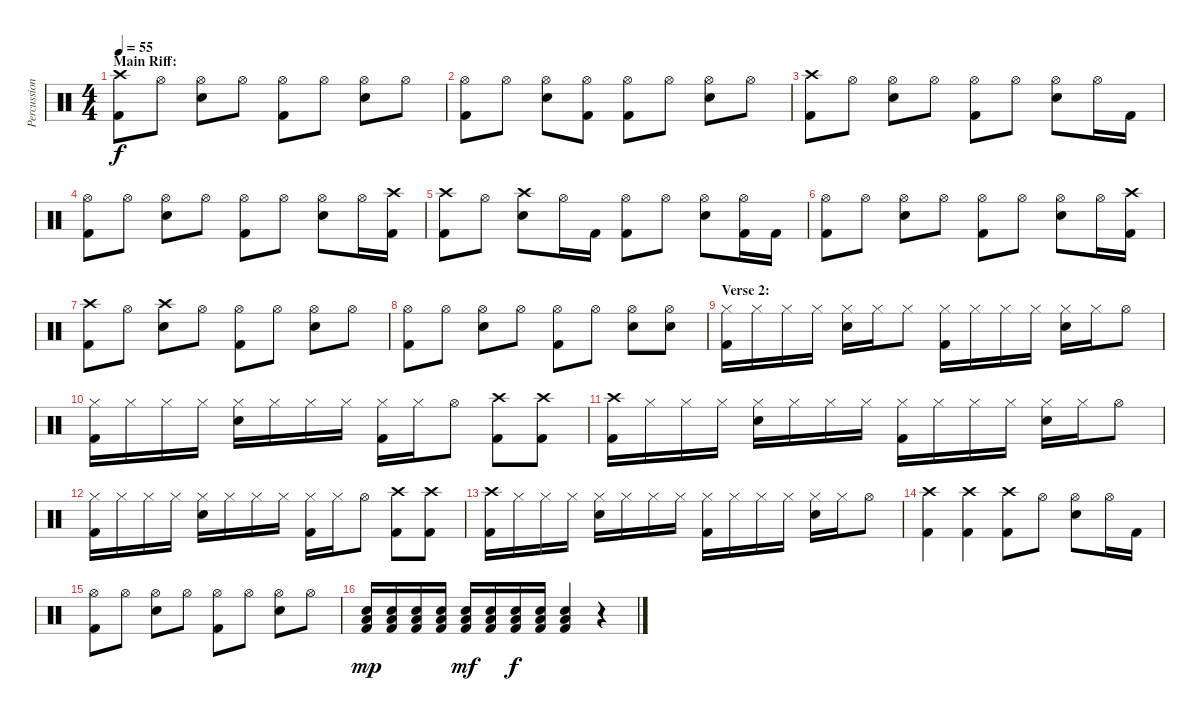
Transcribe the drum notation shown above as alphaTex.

\track ("Percussion" "Percussion") {instrument percussion}
\staff {score}
\articulation defaults
\ts (4 4)
\section ("" "Main Riff:")
\tempo 55
\clef neutral
\ks c
("Crash high (hit)" "Kick (hit) 2").8{dy f} "Hi-Hat (open)".8 ("Hi-Hat (open)" "Snare (hit) 2").8 "Hi-Hat (open)".8 ("Hi-Hat (open)" "Kick (hit) 2").8 "Hi-Hat (open)".8 ("Hi-Hat (open)" "Snare (hit) 2").8 "Hi-Hat (open)".8 |
("Hi-Hat (open)" "Kick (hit) 2").8 "Hi-Hat (open)".8 ("Hi-Hat (open)" "Snare (hit) 2").8 ("Hi-Hat (open)" "Kick (hit) 2").8 ("Hi-Hat (open)" "Kick (hit) 2").8 "Hi-Hat (open)".8 ("Hi-Hat (open)" "Snare (hit) 2").8 "Hi-Hat (open)".8 |
("Crash high (hit)" "Kick (hit) 2").8 "Hi-Hat (open)".8 ("Hi-Hat (open)" "Snare (hit) 2").8 "Hi-Hat (open)".8 ("Hi-Hat (open)" "Kick (hit) 2").8 "Hi-Hat (open)".8 ("Hi-Hat (open)" "Snare (hit) 2").8 "Hi-Hat (open)".16 "Kick (hit) 2".16 |
("Hi-Hat (open)" "Kick (hit) 2").8 "Hi-Hat (open)".8 ("Hi-Hat (open)" "Snare (hit) 2").8 "Hi-Hat (open)".8 ("Hi-Hat (open)" "Kick (hit) 2").8 "Hi-Hat (open)".8 ("Hi-Hat (open)" "Snare (hit) 2").8 "Hi-Hat (open)".16 ("Crash high (hit)" "Kick (hit) 2").16 |
("Crash high (hit)" "Kick (hit) 2").8 "Hi-Hat (open)".8 ("Crash high (hit)" "Snare (hit) 2").8 "Hi-Hat (open)".16 "Kick (hit) 2".16 ("Hi-Hat (open)" "Kick (hit) 2").8 "Hi-Hat (open)".8 ("Hi-Hat (open)" "Snare (hit) 2").8 ("Hi-Hat (open)" "Kick (hit) 2").16 "Kick (hit) 2".16 |
("Hi-Hat (open)" "Kick (hit) 2").8 "Hi-Hat (open)".8 ("Hi-Hat (open)" "Snare (hit) 2").8 "Hi-Hat (open)".8 ("Hi-Hat (open)" "Kick (hit) 2").8 "Hi-Hat (open)".8 ("Hi-Hat (open)" "Snare (hit) 2").8 "Hi-Hat (open)".16 ("Crash high (hit)" "Kick (hit) 2").16 |
("Crash high (hit)" "Kick (hit) 2").8 "Hi-Hat (open)".8 ("Crash high (hit)" "Snare (hit) 2").8 "Hi-Hat (open)".8 ("Hi-Hat (open)" "Kick (hit) 2").8 "Hi-Hat (open)".8 ("Hi-Hat (open)" "Snare (hit) 2").8 "Hi-Hat (open)".8 |
("Hi-Hat (open)" "Kick (hit) 2").8 "Hi-Hat (open)".8 ("Hi-Hat (open)" "Snare (hit) 2").8 "Hi-Hat (open)".8 ("Hi-Hat (open)" "Kick (hit) 2").8 "Hi-Hat (open)".8 ("Hi-Hat (open)" "Snare (hit) 2").8 ("Hi-Hat (open)" "Snare (hit) 2").8 |
\section ("" "Verse 2:")
("Hi-Hat (closed)" "Kick (hit) 2").16 "Hi-Hat (closed)".16 "Hi-Hat (closed)".16 "Hi-Hat (closed)".16 ("Hi-Hat (closed)" "Snare (hit) 2").16 "Hi-Hat (closed)".16 "Hi-Hat (closed)".8 ("Hi-Hat (closed)" "Kick (hit) 2").16 "Hi-Hat (closed)".16 "Hi-Hat (closed)".16 "Hi-Hat (closed)".16 ("Hi-Hat (closed)" "Snare (hit) 2").16 "Hi-Hat (closed)".16 "Hi-Hat (open)".8 |
("Hi-Hat (closed)" "Kick (hit) 2").16 "Hi-Hat (closed)".16 "Hi-Hat (closed)".16 "Hi-Hat (closed)".16 ("Hi-Hat (closed)" "Snare (hit) 2").16 "Hi-Hat (closed)".16 "Hi-Hat (closed)".16 "Hi-Hat (closed)".16 ("Hi-Hat (closed)" "Kick (hit) 2").16 "Hi-Hat (closed)".16 "Hi-Hat (open)".8 ("Crash high (hit)" "Kick (hit) 2").8 ("Crash high (hit)" "Kick (hit) 2").8 |
("Crash high (hit)" "Kick (hit) 2").16 "Hi-Hat (closed)".16 "Hi-Hat (closed)".16 "Hi-Hat (closed)".16 ("Hi-Hat (closed)" "Snare (hit) 2").16 "Hi-Hat (closed)".16 "Hi-Hat (closed)".16 "Hi-Hat (closed)".16 ("Hi-Hat (closed)" "Kick (hit) 2").16 "Hi-Hat (closed)".16 "Hi-Hat (closed)".16 "Hi-Hat (closed)".16 ("Hi-Hat (closed)" "Snare (hit) 2").16 "Hi-Hat (closed)".16 "Hi-Hat (open)".8 |
("Hi-Hat (closed)" "Kick (hit) 2").16 "Hi-Hat (closed)".16 "Hi-Hat (closed)".16 "Hi-Hat (closed)".16 ("Hi-Hat (closed)" "Snare (hit) 2").16 "Hi-Hat (closed)".16 "Hi-Hat (closed)".16 "Hi-Hat (closed)".16 ("Hi-Hat (closed)" "Kick (hit) 2").16 "Hi-Hat (closed)".16 "Hi-Hat (open)".8 ("Crash high (hit)" "Kick (hit) 2").8 ("Crash high (hit)" "Kick (hit) 2").8 |
("Crash high (hit)" "Kick (hit) 2").16 "Hi-Hat (closed)".16 "Hi-Hat (closed)".16 "Hi-Hat (closed)".16 ("Hi-Hat (closed)" "Snare (hit) 2").16 "Hi-Hat (closed)".16 "Hi-Hat (closed)".16 "Hi-Hat (closed)".16 ("Hi-Hat (closed)" "Kick (hit) 2").16 "Hi-Hat (closed)".16 "Hi-Hat (closed)".16 "Hi-Hat (closed)".16 ("Hi-Hat (closed)" "Snare (hit) 2").16 "Hi-Hat (closed)".16 "Hi-Hat (open)".8 |
("Crash high (hit)" "Kick (hit) 2").4 ("Crash high (hit)" "Kick (hit) 2").4 ("Crash high (hit)" "Kick (hit) 2").8 "Hi-Hat (open)".8 ("Hi-Hat (open)" "Snare (hit) 2").8 "Hi-Hat (open)".16 "Kick (hit) 2".16 |
("Hi-Hat (open)" "Kick (hit) 2").8 "Hi-Hat (open)".8 ("Hi-Hat (open)" "Snare (hit) 2").8 "Hi-Hat (open)".8 ("Hi-Hat (open)" "Kick (hit) 2").8 "Hi-Hat (open)".8 ("Hi-Hat (open)" "Snare (hit) 2").8 "Hi-Hat (open)".8 |
("Snare (hit) 2" "Low Tom (hit)" "Kick (hit) 2").16{dy mp} ("Snare (hit) 2" "Low Tom (hit)" "Kick (hit) 2").16 ("Snare (hit) 2" "Low Tom (hit)" "Kick (hit) 2").16 ("Snare (hit) 2" "Low Tom (hit)" "Kick (hit) 2").16 ("Snare (hit) 2" "Low Tom (hit)" "Kick (hit) 2").16{dy mf} ("Snare (hit) 2" "Low Tom (hit)" "Kick (hit) 2").16 ("Snare (hit) 2" "Low Tom (hit)" "Kick (hit) 2").16{dy f} ("Snare (hit) 2" "Low Tom (hit)" "Kick (hit) 2").16 ("Snare (hit) 2" "Low Tom (hit)" "Kick (hit) 2").4 r.4
